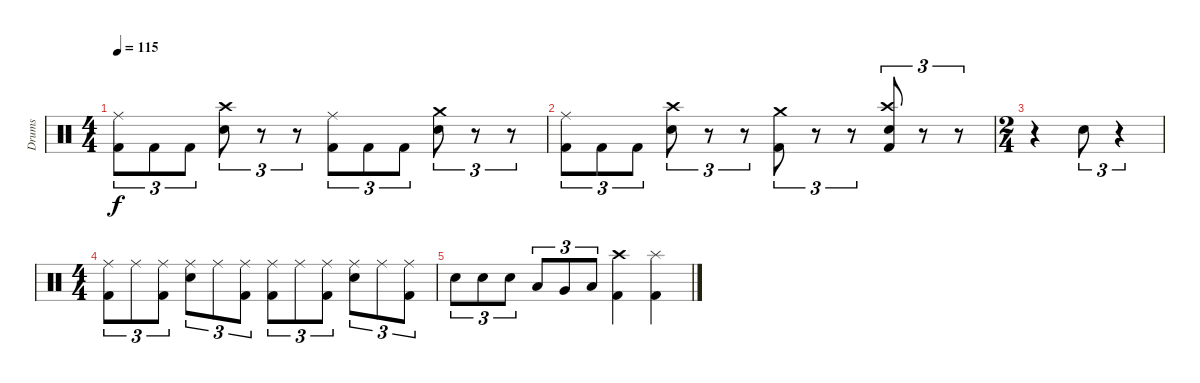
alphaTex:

\track ("Drums" "Drums") {instrument percussion}
\staff {score}
\articulation defaults
\ts (4 4)
\tempo 115
\clef neutral
\ks c
("Ride (middle)" "Kick (hit) 2").8{tu (3 2) dy f} "Kick (hit) 2".8{tu (3 2)} "Kick (hit) 2".8{tu (3 2)} ("Crash high (hit)" "Snare (hit) 2").8{tu (3 2)} r.8{tu (3 2)} r.8{tu (3 2)} ("Ride (middle)" "Kick (hit) 2").8{tu (3 2)} "Kick (hit) 2".8{tu (3 2)} "Kick (hit) 2".8{tu (3 2)} ("Crash medium (hit)" "Snare (hit) 2").8{tu (3 2)} r.8{tu (3 2)} r.8{tu (3 2)} |
("Ride (middle)" "Kick (hit) 2").8{tu (3 2)} "Kick (hit) 2".8{tu (3 2)} "Kick (hit) 2".8{tu (3 2)} ("Crash high (hit)" "Snare (hit) 2").8{tu (3 2)} r.8{tu (3 2)} r.8{tu (3 2)} ("Crash medium (hit)" "Kick (hit) 2").8{tu (3 2)} r.8{tu (3 2)} r.8{tu (3 2)} ("Crash high (hit)" "Snare (hit) 2" "Kick (hit) 2").8{tu (3 2)} r.8{tu (3 2)} r.8{tu (3 2)} |
\ts (2 4)
r.4 "Snare (hit) 2".8{tu (3 2)} r.4{tu (3 2)} |
\ts (4 4)
("Ride (middle)" "Kick (hit) 2").8{tu (3 2)} "Ride (middle)".8{tu (3 2)} ("Ride (middle)" "Kick (hit) 2").8{tu (3 2)} ("Ride (middle)" "Snare (hit) 2").8{tu (3 2)} "Ride (middle)".8{tu (3 2)} ("Ride (middle)" "Kick (hit) 2").8{tu (3 2)} ("Ride (middle)" "Kick (hit) 2").8{tu (3 2)} "Ride (middle)".8{tu (3 2)} ("Ride (middle)" "Kick (hit) 2").8{tu (3 2)} ("Ride (middle)" "Snare (hit) 2").8{tu (3 2)} "Ride (middle)".8{tu (3 2)} ("Ride (middle)" "Kick (hit) 2").8{tu (3 2)} |
"Snare (hit) 2".8{tu (3 2)} "Snare (hit) 2".8{tu (3 2)} "Snare (hit) 2".8{tu (3 2)} "Low Tom (hit)".8{tu (3 2)} "Very Low Tom (hit)".8{tu (3 2)} "Low Floor Tom (hit)".8{tu (3 2)} ("Crash high (hit)" "Kick (hit) 2").4 ("Splash (hit)" "Kick (hit) 2").4
